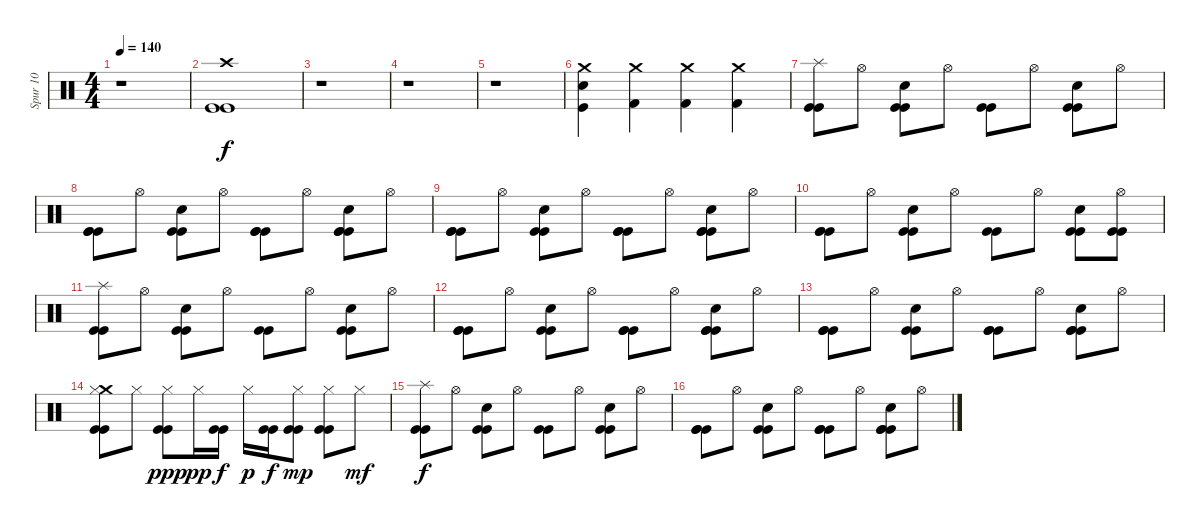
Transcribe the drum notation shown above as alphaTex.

\track ("Spur 10" "Spur 10") {instrument percussion}
\staff {score}
\articulation defaults
\ts (4 4)
\tempo 140
\clef neutral
\ks c
r.1{dy f} |
("Kick (hit)" "Kick (hit)" "Crash high (hit)").1 |
r.1 |
r.1 |
r.1 |
("Snare (hit)" "Kick (hit)" "Crash medium (hit)").4 ("Crash medium (hit)" "Kick (hit) 2").4 ("Crash medium (hit)" "Kick (hit) 2").4 ("Kick (hit) 2" "Crash medium (hit)").4 |
("Kick (hit)" "Kick (hit)" "Splash (hit)").8 "Hi-Hat (open)".8 ("Kick (hit)" "Hand Clap (hit)" "Kick (hit)").8 "Hi-Hat (open)".8 ("Kick (hit)" "Kick (hit)").8 "Hi-Hat (open)".8 ("Kick (hit)" "Hand Clap (hit)" "Kick (hit)").8 "Hi-Hat (open)".8 |
("Kick (hit)" "Kick (hit)" "Kick (hit)").8 "Hi-Hat (open)".8 ("Kick (hit)" "Kick (hit)" "Hand Clap (hit)").8 "Hi-Hat (open)".8 ("Kick (hit)" "Kick (hit)" "Kick (hit)").8 "Hi-Hat (open)".8 ("Kick (hit)" "Kick (hit)" "Hand Clap (hit)" "Kick (hit)").8 "Hi-Hat (open)".8 |
("Kick (hit)" "Kick (hit)" "Kick (hit)").8 "Hi-Hat (open)".8 ("Kick (hit)" "Kick (hit)" "Hand Clap (hit)").8 "Hi-Hat (open)".8 ("Kick (hit)" "Kick (hit)" "Kick (hit)").8 "Hi-Hat (open)".8 ("Kick (hit)" "Kick (hit)" "Hand Clap (hit)" "Kick (hit)").8 "Hi-Hat (open)".8 |
("Kick (hit)" "Kick (hit)" "Kick (hit)").8 "Hi-Hat (open)".8 ("Kick (hit)" "Kick (hit)" "Hand Clap (hit)").8 "Hi-Hat (open)".8 ("Kick (hit)" "Kick (hit)").8 "Hi-Hat (open)".8 ("Kick (hit)" "Hand Clap (hit)" "Kick (hit)").8 ("Kick (hit)" "Kick (hit)" "Hi-Hat (open)").8 |
("Kick (hit)" "Kick (hit)" "Splash (hit)").8 "Hi-Hat (open)".8 ("Kick (hit)" "Hand Clap (hit)" "Kick (hit)").8 "Hi-Hat (open)".8 ("Kick (hit)" "Kick (hit)").8 "Hi-Hat (open)".8 ("Kick (hit)" "Hand Clap (hit)" "Kick (hit)").8 "Hi-Hat (open)".8 |
("Kick (hit)" "Kick (hit)" "Kick (hit)").8 "Hi-Hat (open)".8 ("Kick (hit)" "Kick (hit)" "Hand Clap (hit)").8 "Hi-Hat (open)".8 ("Kick (hit)" "Kick (hit)" "Kick (hit)").8 "Hi-Hat (open)".8 ("Kick (hit)" "Kick (hit)" "Hand Clap (hit)" "Kick (hit)").8 "Hi-Hat (open)".8 |
("Kick (hit)" "Kick (hit)" "Kick (hit)").8 "Hi-Hat (open)".8 ("Kick (hit)" "Kick (hit)" "Hand Clap (hit)").8 "Hi-Hat (open)".8 ("Kick (hit)" "Kick (hit)" "Kick (hit)").8 "Hi-Hat (open)".8 ("Kick (hit)" "Kick (hit)" "Hand Clap (hit)" "Kick (hit)").8 "Hi-Hat (open)".8 |
("Kick (hit)" "Kick (hit)" "Crash medium (hit)" "Hi-Hat (closed)").8 "Hi-Hat (closed)".8 ("Kick (hit)" "Kick (hit)" "Hi-Hat (closed)").8{dy ppp} "Hi-Hat (closed)".16{dy pp} ("Kick (hit)" "Kick (hit)").16{dy f} "Hi-Hat (closed)".16{dy p} ("Kick (hit)" "Kick (hit)").16{dy f} ("Kick (hit)" "Kick (hit)" "Hi-Hat (closed)").8{dy mp} ("Kick (hit)" "Kick (hit)" "Hi-Hat (closed)").8 "Hi-Hat (closed)".8{dy mf} |
("Kick (hit)" "Kick (hit)" "Splash (hit)").8{dy f} "Hi-Hat (open)".8 ("Kick (hit)" "Hand Clap (hit)" "Kick (hit)").8 "Hi-Hat (open)".8 ("Kick (hit)" "Kick (hit)").8 "Hi-Hat (open)".8 ("Kick (hit)" "Hand Clap (hit)" "Kick (hit)").8 "Hi-Hat (open)".8 |
("Kick (hit)" "Kick (hit)" "Kick (hit)").8 "Hi-Hat (open)".8 ("Kick (hit)" "Kick (hit)" "Hand Clap (hit)").8 "Hi-Hat (open)".8 ("Kick (hit)" "Kick (hit)" "Kick (hit)").8 "Hi-Hat (open)".8 ("Kick (hit)" "Kick (hit)" "Hand Clap (hit)" "Kick (hit)").8 "Hi-Hat (open)".8
